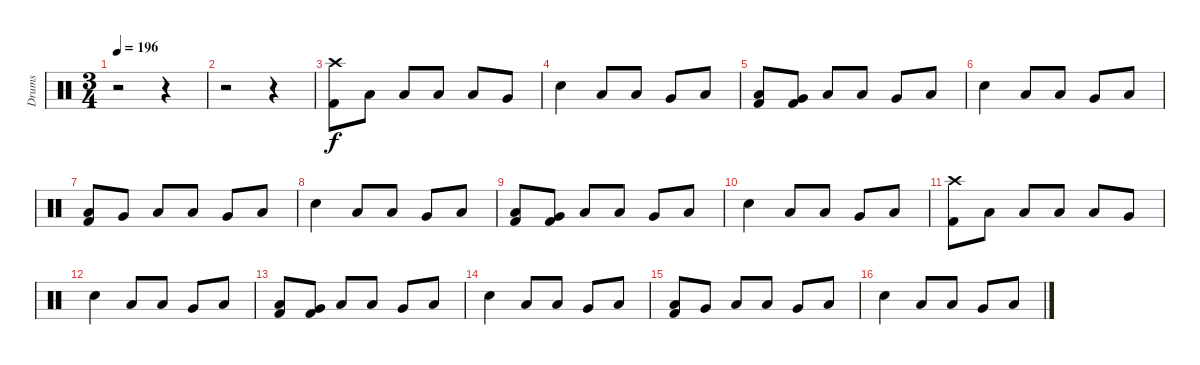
\track ("Drums" "Drums") {instrument percussion}
\staff {score}
\articulation defaults
\ts (3 4)
\tempo 196
\clef neutral
\ks c
r.2{dy f} r.4 |
r.2 r.4 |
("Crash high (hit)" "Kick (hit) 2").8 "Low Floor Tom (hit)".8 "Low Floor Tom (hit)".8 "Low Tom (hit)".8 "Low Floor Tom (hit)".8 "Very Low Tom (hit)".8 |
"Electric Snare (hit)".4 "Low Floor Tom (hit)".8 "Low Tom (hit)".8 "Very Low Tom (hit)".8 "Low Floor Tom (hit)".8 |
("Low Tom (hit)" "Kick (hit) 2").8 ("Very Low Tom (hit)" "Kick (hit) 2").8 "Low Floor Tom (hit)".8 "Low Tom (hit)".8 "Very Low Tom (hit)".8 "Low Floor Tom (hit)".8 |
"Electric Snare (hit)".4 "Low Floor Tom (hit)".8 "Low Tom (hit)".8 "Very Low Tom (hit)".8 "Low Floor Tom (hit)".8 |
("Low Tom (hit)" "Kick (hit) 2").8 "Very Low Tom (hit)".8 "Low Floor Tom (hit)".8 "Low Tom (hit)".8 "Very Low Tom (hit)".8 "Low Floor Tom (hit)".8 |
"Electric Snare (hit)".4 "Low Floor Tom (hit)".8 "Low Tom (hit)".8 "Very Low Tom (hit)".8 "Low Floor Tom (hit)".8 |
("Low Tom (hit)" "Kick (hit) 2").8 ("Very Low Tom (hit)" "Kick (hit) 2").8 "Low Floor Tom (hit)".8 "Low Tom (hit)".8 "Very Low Tom (hit)".8 "Low Floor Tom (hit)".8 |
"Electric Snare (hit)".4 "Low Floor Tom (hit)".8 "Low Tom (hit)".8 "Very Low Tom (hit)".8 "Low Floor Tom (hit)".8 |
("Crash high (hit)" "Kick (hit) 2").8 "Low Floor Tom (hit)".8 "Low Floor Tom (hit)".8 "Low Tom (hit)".8 "Low Floor Tom (hit)".8 "Very Low Tom (hit)".8 |
"Electric Snare (hit)".4 "Low Floor Tom (hit)".8 "Low Tom (hit)".8 "Very Low Tom (hit)".8 "Low Floor Tom (hit)".8 |
("Low Tom (hit)" "Kick (hit) 2").8 ("Very Low Tom (hit)" "Kick (hit) 2").8 "Low Floor Tom (hit)".8 "Low Tom (hit)".8 "Very Low Tom (hit)".8 "Low Floor Tom (hit)".8 |
"Electric Snare (hit)".4 "Low Floor Tom (hit)".8 "Low Tom (hit)".8 "Very Low Tom (hit)".8 "Low Floor Tom (hit)".8 |
("Low Tom (hit)" "Kick (hit) 2").8 "Very Low Tom (hit)".8 "Low Floor Tom (hit)".8 "Low Tom (hit)".8 "Very Low Tom (hit)".8 "Low Floor Tom (hit)".8 |
"Electric Snare (hit)".4 "Low Floor Tom (hit)".8 "Low Tom (hit)".8 "Very Low Tom (hit)".8 "Low Floor Tom (hit)".8
